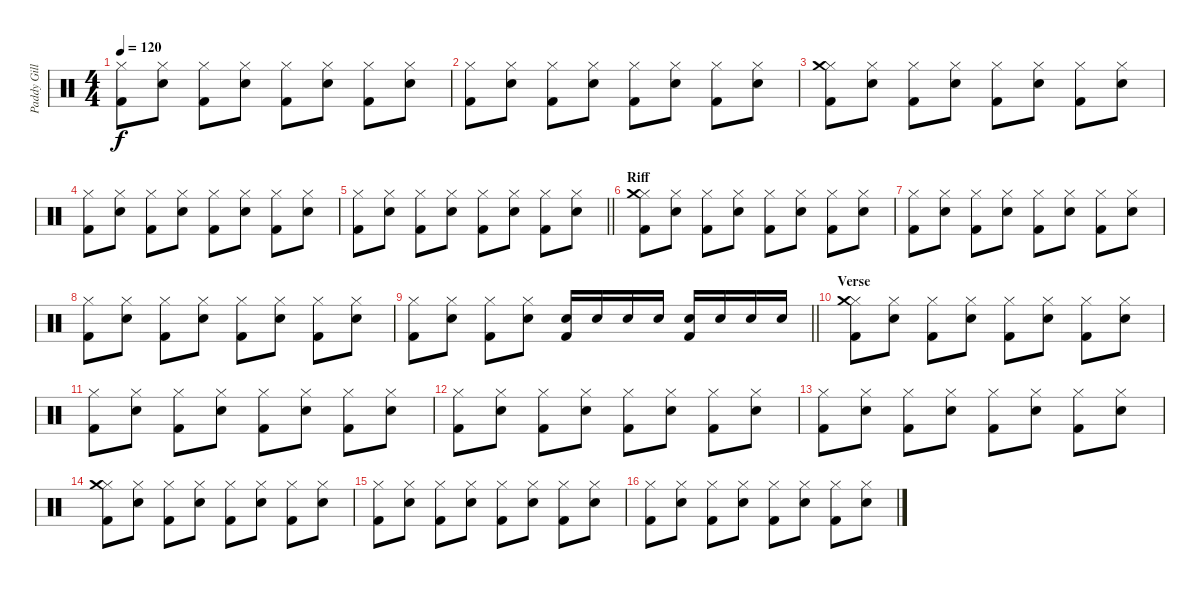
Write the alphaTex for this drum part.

\track ("Paddy Gillespie" "Paddy Gill") {instrument percussion}
\staff {score}
\articulation defaults
\ts (4 4)
\tempo 120
\clef neutral
\ks c
("Hi-Hat (closed)" "Kick (hit) 2").8{dy f} ("Hi-Hat (closed)" "Snare (hit) 2").8 ("Hi-Hat (closed)" "Kick (hit) 2").8 ("Hi-Hat (closed)" "Snare (hit) 2").8 ("Hi-Hat (closed)" "Kick (hit) 2").8 ("Hi-Hat (closed)" "Snare (hit) 2").8 ("Hi-Hat (closed)" "Kick (hit) 2").8 ("Hi-Hat (closed)" "Snare (hit) 2").8 |
("Hi-Hat (closed)" "Kick (hit) 2").8 ("Hi-Hat (closed)" "Snare (hit) 2").8 ("Hi-Hat (closed)" "Kick (hit) 2").8 ("Hi-Hat (closed)" "Snare (hit) 2").8 ("Hi-Hat (closed)" "Kick (hit) 2").8 ("Hi-Hat (closed)" "Snare (hit) 2").8 ("Hi-Hat (closed)" "Kick (hit) 2").8 ("Hi-Hat (closed)" "Snare (hit) 2").8 |
("Hi-Hat (closed)" "Kick (hit) 2" "Crash medium (hit)").8 ("Hi-Hat (closed)" "Snare (hit) 2").8 ("Hi-Hat (closed)" "Kick (hit) 2").8 ("Hi-Hat (closed)" "Snare (hit) 2").8 ("Hi-Hat (closed)" "Kick (hit) 2").8 ("Hi-Hat (closed)" "Snare (hit) 2").8 ("Hi-Hat (closed)" "Kick (hit) 2").8 ("Hi-Hat (closed)" "Snare (hit) 2").8 |
("Hi-Hat (closed)" "Kick (hit) 2").8 ("Hi-Hat (closed)" "Snare (hit) 2").8 ("Hi-Hat (closed)" "Kick (hit) 2").8 ("Hi-Hat (closed)" "Snare (hit) 2").8 ("Hi-Hat (closed)" "Kick (hit) 2").8 ("Hi-Hat (closed)" "Snare (hit) 2").8 ("Hi-Hat (closed)" "Kick (hit) 2").8 ("Hi-Hat (closed)" "Snare (hit) 2").8 |
\barLineRight lightlight
("Hi-Hat (closed)" "Kick (hit) 2").8 ("Hi-Hat (closed)" "Snare (hit) 2").8 ("Hi-Hat (closed)" "Kick (hit) 2").8 ("Hi-Hat (closed)" "Snare (hit) 2").8 ("Hi-Hat (closed)" "Kick (hit) 2").8 ("Hi-Hat (closed)" "Snare (hit) 2").8 ("Hi-Hat (closed)" "Kick (hit) 2").8 ("Hi-Hat (closed)" "Snare (hit) 2").8 |
\section ("" "Riff")
("Hi-Hat (closed)" "Kick (hit) 2" "Crash medium (hit)").8 ("Hi-Hat (closed)" "Snare (hit) 2").8 ("Hi-Hat (closed)" "Kick (hit) 2").8 ("Hi-Hat (closed)" "Snare (hit) 2").8 ("Hi-Hat (closed)" "Kick (hit) 2").8 ("Hi-Hat (closed)" "Snare (hit) 2").8 ("Hi-Hat (closed)" "Kick (hit) 2").8 ("Hi-Hat (closed)" "Snare (hit) 2").8 |
("Hi-Hat (closed)" "Kick (hit) 2").8 ("Hi-Hat (closed)" "Snare (hit) 2").8 ("Hi-Hat (closed)" "Kick (hit) 2").8 ("Hi-Hat (closed)" "Snare (hit) 2").8 ("Hi-Hat (closed)" "Kick (hit) 2").8 ("Hi-Hat (closed)" "Snare (hit) 2").8 ("Hi-Hat (closed)" "Kick (hit) 2").8 ("Hi-Hat (closed)" "Snare (hit) 2").8 |
("Hi-Hat (closed)" "Kick (hit) 2").8 ("Hi-Hat (closed)" "Snare (hit) 2").8 ("Hi-Hat (closed)" "Kick (hit) 2").8 ("Hi-Hat (closed)" "Snare (hit) 2").8 ("Hi-Hat (closed)" "Kick (hit) 2").8 ("Hi-Hat (closed)" "Snare (hit) 2").8 ("Hi-Hat (closed)" "Kick (hit) 2").8 ("Hi-Hat (closed)" "Snare (hit) 2").8 |
\barLineRight lightlight
("Hi-Hat (closed)" "Kick (hit) 2").8 ("Hi-Hat (closed)" "Snare (hit) 2").8 ("Hi-Hat (closed)" "Kick (hit) 2").8 ("Hi-Hat (closed)" "Snare (hit) 2").8 ("Snare (hit) 2" "Kick (hit) 2").16 "Snare (hit) 2".16 "Snare (hit) 2".16 "Snare (hit) 2".16 ("Snare (hit) 2" "Kick (hit) 2").16 "Snare (hit) 2".16 "Snare (hit) 2".16 "Snare (hit) 2".16 |
\section ("" "Verse")
("Hi-Hat (closed)" "Kick (hit) 2" "Crash medium (hit)").8 ("Hi-Hat (closed)" "Snare (hit) 2").8 ("Hi-Hat (closed)" "Kick (hit) 2").8 ("Hi-Hat (closed)" "Snare (hit) 2").8 ("Hi-Hat (closed)" "Kick (hit) 2").8 ("Hi-Hat (closed)" "Snare (hit) 2").8 ("Hi-Hat (closed)" "Kick (hit) 2").8 ("Hi-Hat (closed)" "Snare (hit) 2").8 |
("Hi-Hat (closed)" "Kick (hit) 2").8 ("Hi-Hat (closed)" "Snare (hit) 2").8 ("Hi-Hat (closed)" "Kick (hit) 2").8 ("Hi-Hat (closed)" "Snare (hit) 2").8 ("Hi-Hat (closed)" "Kick (hit) 2").8 ("Hi-Hat (closed)" "Snare (hit) 2").8 ("Hi-Hat (closed)" "Kick (hit) 2").8 ("Hi-Hat (closed)" "Snare (hit) 2").8 |
("Hi-Hat (closed)" "Kick (hit) 2").8 ("Hi-Hat (closed)" "Snare (hit) 2").8 ("Hi-Hat (closed)" "Kick (hit) 2").8 ("Hi-Hat (closed)" "Snare (hit) 2").8 ("Hi-Hat (closed)" "Kick (hit) 2").8 ("Hi-Hat (closed)" "Snare (hit) 2").8 ("Hi-Hat (closed)" "Kick (hit) 2").8 ("Hi-Hat (closed)" "Snare (hit) 2").8 |
("Hi-Hat (closed)" "Kick (hit) 2").8 ("Hi-Hat (closed)" "Snare (hit) 2").8 ("Hi-Hat (closed)" "Kick (hit) 2").8 ("Hi-Hat (closed)" "Snare (hit) 2").8 ("Hi-Hat (closed)" "Kick (hit) 2").8 ("Hi-Hat (closed)" "Snare (hit) 2").8 ("Hi-Hat (closed)" "Kick (hit) 2").8 ("Hi-Hat (closed)" "Snare (hit) 2").8 |
("Hi-Hat (closed)" "Kick (hit) 2" "Crash medium (hit)").8 ("Hi-Hat (closed)" "Snare (hit) 2").8 ("Hi-Hat (closed)" "Kick (hit) 2").8 ("Hi-Hat (closed)" "Snare (hit) 2").8 ("Hi-Hat (closed)" "Kick (hit) 2").8 ("Hi-Hat (closed)" "Snare (hit) 2").8 ("Hi-Hat (closed)" "Kick (hit) 2").8 ("Hi-Hat (closed)" "Snare (hit) 2").8 |
("Hi-Hat (closed)" "Kick (hit) 2").8 ("Hi-Hat (closed)" "Snare (hit) 2").8 ("Hi-Hat (closed)" "Kick (hit) 2").8 ("Hi-Hat (closed)" "Snare (hit) 2").8 ("Hi-Hat (closed)" "Kick (hit) 2").8 ("Hi-Hat (closed)" "Snare (hit) 2").8 ("Hi-Hat (closed)" "Kick (hit) 2").8 ("Hi-Hat (closed)" "Snare (hit) 2").8 |
("Hi-Hat (closed)" "Kick (hit) 2").8 ("Hi-Hat (closed)" "Snare (hit) 2").8 ("Hi-Hat (closed)" "Kick (hit) 2").8 ("Hi-Hat (closed)" "Snare (hit) 2").8 ("Hi-Hat (closed)" "Kick (hit) 2").8 ("Hi-Hat (closed)" "Snare (hit) 2").8 ("Hi-Hat (closed)" "Kick (hit) 2").8 ("Hi-Hat (closed)" "Snare (hit) 2").8
